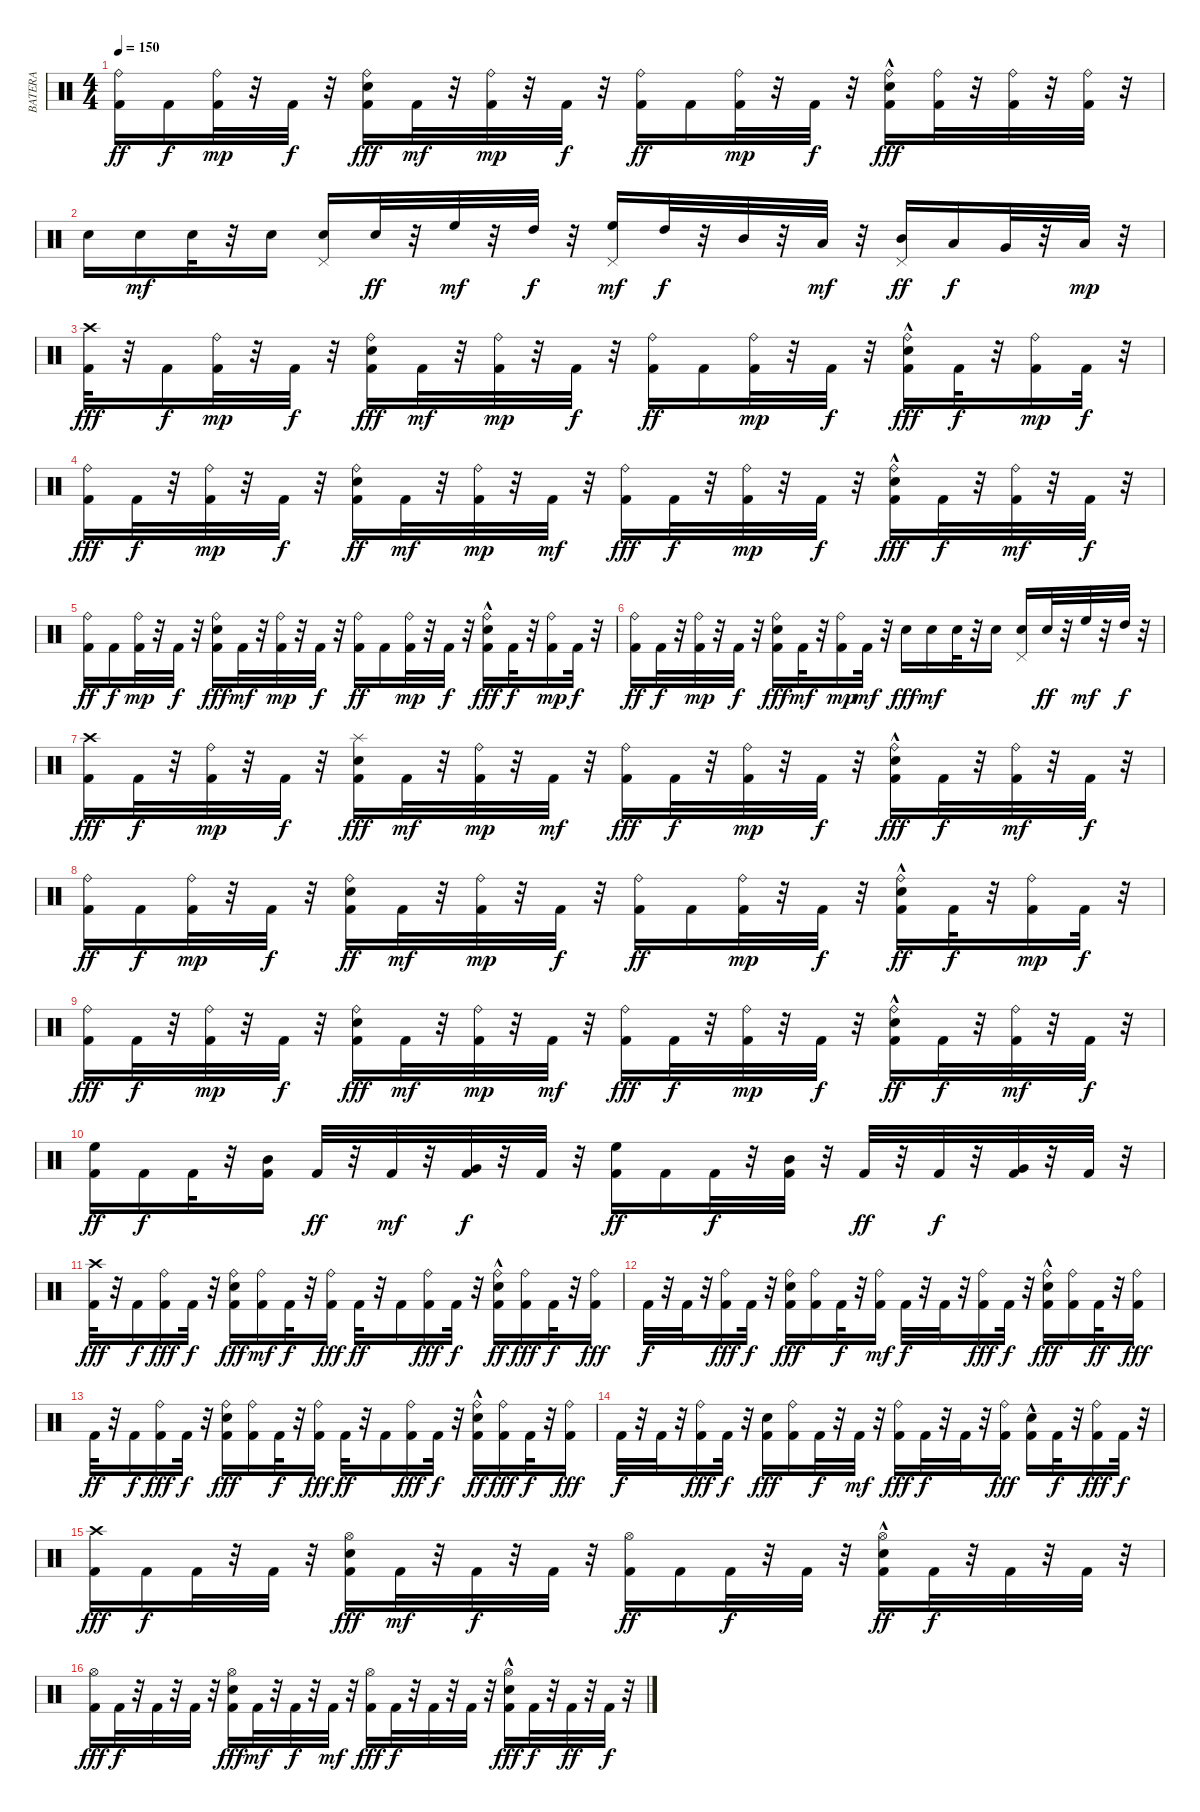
\track ("BATERA" "BATERA") {instrument percussion}
\staff {score}
\articulation defaults
\ts (4 4)
\tempo 150
\clef neutral
\ks c
("Ride (bell)" "Kick (hit) 2").16{dy ff} "Kick (hit) 2".16{dy f} ("Ride (bell)" "Kick (hit) 2").32{dy mp} r.32 "Kick (hit) 2".32{dy f} r.32 ("Kick (hit) 2" "Electric Snare (hit)" "Ride (bell)").16{dy fff} "Kick (hit) 2".32{dy mf} r.32 ("Kick (hit) 2" "Ride (bell)").32{dy mp} r.32 "Kick (hit) 2".32{dy f} r.32 ("Ride (bell)" "Kick (hit) 2").16{dy ff} "Kick (hit) 2".16 ("Ride (bell)" "Kick (hit) 2").32{dy mp} r.32 "Kick (hit) 2".32{dy f} r.32 ("Electric Snare (hit)"{hac} "Kick (hit) 2" "Ride (bell)").16{dy fff} ("Kick (hit) 2" "Ride (bell)").32 r.32 ("Ride (bell)" "Kick (hit) 2").32 r.32 ("Ride (bell)" "Kick (hit) 2").32 r.32 |
"Electric Snare (hit)".16 "Electric Snare (hit)".16{dy mf} "Electric Snare (hit)".32 r.32 "Electric Snare (hit)".16 ("Electric Snare (hit)" "Pedal Hi-Hat (hit)").16 "Electric Snare (hit)".32{dy ff} r.32 "High Floor Tom (hit)".32{dy mf} r.32 "High Tom (hit)".32{dy f} r.32 ("High Floor Tom (hit)" "Pedal Hi-Hat (hit)").16{dy mf} "High Tom (hit)".32{dy f} r.32 "Mid Tom (hit)".32 r.32 "Low Tom (hit)".32{dy mf} r.32 ("Pedal Hi-Hat (hit)" "Mid Tom (hit)").16{dy ff} "Low Tom (hit)".16{dy f} "Very Low Tom (hit)".32 r.32 "Low Floor Tom (hit)".32{dy mp} r.32 |
("Kick (hit) 2" "Crash high (hit)").32{dy fff} r.32 "Kick (hit) 2".16{dy f} ("Ride (bell)" "Kick (hit) 2").32{dy mp} r.32 "Kick (hit) 2".32{dy f} r.32 ("Electric Snare (hit)" "Kick (hit) 2" "Ride (bell)").16{dy fff} "Kick (hit) 2".32{dy mf} r.32 ("Kick (hit) 2" "Ride (bell)").32{dy mp} r.32 "Kick (hit) 2".32{dy f} r.32 ("Kick (hit) 2" "Ride (bell)").16{dy ff} "Kick (hit) 2".16 ("Ride (bell)" "Kick (hit) 2").32{dy mp} r.32 "Kick (hit) 2".32{dy f} r.32 ("Kick (hit) 2" "Ride (bell)" "Electric Snare (hit)"{hac}).16{dy fff} "Kick (hit) 2".32{dy f} r.32 ("Ride (bell)" "Kick (hit) 2").16{dy mp} "Kick (hit) 2".32{dy f} r.32 |
("Ride (bell)" "Kick (hit) 2").16{dy fff} "Kick (hit) 2".32{dy f} r.32 ("Ride (bell)" "Kick (hit) 2").32{dy mp} r.32 "Kick (hit) 2".32{dy f} r.32 ("Kick (hit) 2" "Electric Snare (hit)" "Ride (bell)").16{dy ff} "Kick (hit) 2".32{dy mf} r.32 ("Ride (bell)" "Kick (hit) 2").32{dy mp} r.32 "Kick (hit) 2".32{dy mf} r.32 ("Kick (hit) 2" "Ride (bell)").16{dy fff} "Kick (hit) 2".32{dy f} r.32 ("Ride (bell)" "Kick (hit) 2").32{dy mp} r.32 "Kick (hit) 2".32{dy f} r.32 ("Ride (bell)" "Electric Snare (hit)"{hac} "Kick (hit) 2").16{dy fff} "Kick (hit) 2".32{dy f} r.32 ("Kick (hit) 2" "Ride (bell)").32{dy mf} r.32 "Kick (hit) 2".32{dy f} r.32 |
("Kick (hit) 2" "Ride (bell)").16{dy ff} "Kick (hit) 2".16{dy f} ("Ride (bell)" "Kick (hit) 2").32{dy mp} r.32 "Kick (hit) 2".32{dy f} r.32 ("Electric Snare (hit)" "Kick (hit) 2" "Ride (bell)").16{dy fff} "Kick (hit) 2".32{dy mf} r.32 ("Ride (bell)" "Kick (hit) 2").32{dy mp} r.32 "Kick (hit) 2".32{dy f} r.32 ("Ride (bell)" "Kick (hit) 2").16{dy ff} "Kick (hit) 2".16 ("Kick (hit) 2" "Ride (bell)").32{dy mp} r.32 "Kick (hit) 2".32{dy f} r.32 ("Kick (hit) 2" "Ride (bell)" "Electric Snare (hit)"{hac}).16{dy fff} "Kick (hit) 2".32{dy f} r.32 ("Ride (bell)" "Kick (hit) 2").16{dy mp} "Kick (hit) 2".32{dy f} r.32 |
("Ride (bell)" "Kick (hit) 2").16{dy ff} "Kick (hit) 2".32{dy f} r.32 ("Ride (bell)" "Kick (hit) 2").32{dy mp} r.32 "Kick (hit) 2".32{dy f} r.32 ("Ride (bell)" "Electric Snare (hit)" "Kick (hit) 2").16{dy fff} "Kick (hit) 2".32{dy mf} r.32 ("Ride (bell)" "Kick (hit) 2").16{dy mp} "Kick (hit) 2".32{dy mf} r.32 "Electric Snare (hit)".16{dy fff} "Electric Snare (hit)".16{dy mf} "Electric Snare (hit)".32 r.32 "Electric Snare (hit)".16 ("Electric Snare (hit)" "Pedal Hi-Hat (hit)").16 "Electric Snare (hit)".32{dy ff} r.32 "High Floor Tom (hit)".32{dy mf} r.32 "High Tom (hit)".32{dy f} r.32 |
("Crash high (hit)" "Kick (hit) 2").16{dy fff} "Kick (hit) 2".32{dy f} r.32 ("Kick (hit) 2" "Ride (bell)").32{dy mp} r.32 "Kick (hit) 2".32{dy f} r.32 ("Kick (hit) 2" "Splash (hit)" "Electric Snare (hit)").16{dy fff} "Kick (hit) 2".32{dy mf} r.32 ("Kick (hit) 2" "Ride (bell)").32{dy mp} r.32 "Kick (hit) 2".32{dy mf} r.32 ("Kick (hit) 2" "Ride (bell)").16{dy fff} "Kick (hit) 2".32{dy f} r.32 ("Ride (bell)" "Kick (hit) 2").32{dy mp} r.32 "Kick (hit) 2".32{dy f} r.32 ("Ride (bell)" "Kick (hit) 2" "Electric Snare (hit)"{hac}).16{dy fff} "Kick (hit) 2".32{dy f} r.32 ("Kick (hit) 2" "Ride (bell)").32{dy mf} r.32 "Kick (hit) 2".32{dy f} r.32 |
("Ride (bell)" "Kick (hit) 2").16{dy ff} "Kick (hit) 2".16{dy f} ("Kick (hit) 2" "Ride (bell)").32{dy mp} r.32 "Kick (hit) 2".32{dy f} r.32 ("Ride (bell)" "Electric Snare (hit)" "Kick (hit) 2").16{dy ff} "Kick (hit) 2".32{dy mf} r.32 ("Kick (hit) 2" "Ride (bell)").32{dy mp} r.32 "Kick (hit) 2".32{dy f} r.32 ("Kick (hit) 2" "Ride (bell)").16{dy ff} "Kick (hit) 2".16 ("Ride (bell)" "Kick (hit) 2").32{dy mp} r.32 "Kick (hit) 2".32{dy f} r.32 ("Ride (bell)" "Electric Snare (hit)"{hac} "Kick (hit) 2").16{dy ff} "Kick (hit) 2".32{dy f} r.32 ("Ride (bell)" "Kick (hit) 2").16{dy mp} "Kick (hit) 2".32{dy f} r.32 |
("Ride (bell)" "Kick (hit) 2").16{dy fff} "Kick (hit) 2".32{dy f} r.32 ("Ride (bell)" "Kick (hit) 2").32{dy mp} r.32 "Kick (hit) 2".32{dy f} r.32 ("Ride (bell)" "Kick (hit) 2" "Electric Snare (hit)").16{dy fff} "Kick (hit) 2".32{dy mf} r.32 ("Kick (hit) 2" "Ride (bell)").32{dy mp} r.32 "Kick (hit) 2".32{dy mf} r.32 ("Ride (bell)" "Kick (hit) 2").16{dy fff} "Kick (hit) 2".32{dy f} r.32 ("Ride (bell)" "Kick (hit) 2").32{dy mp} r.32 "Kick (hit) 2".32{dy f} r.32 ("Electric Snare (hit)"{hac} "Ride (bell)" "Kick (hit) 2").16{dy ff} "Kick (hit) 2".32{dy f} r.32 ("Kick (hit) 2" "Ride (bell)").32{dy mf} r.32 "Kick (hit) 2".32{dy f} r.32 |
("Kick (hit) 2" "High Floor Tom (hit)").16{dy ff} "Kick (hit) 2".16{dy f} "Kick (hit) 2".32 r.32 ("Mid Tom (hit)" "Kick (hit) 2").16 "Kick (hit) 2".32{dy ff} r.32 "Kick (hit) 2".32{dy mf} r.32 ("Very Low Tom (hit)" "Kick (hit) 2").32{dy f} r.32 "Kick (hit) 2".32 r.32 ("Kick (hit) 2" "High Floor Tom (hit)").16{dy ff} "Kick (hit) 2".16 "Kick (hit) 2".32{dy f} r.32 ("Kick (hit) 2" "Mid Tom (hit)").32 r.32 "Kick (hit) 2".32{dy ff} r.32 "Kick (hit) 2".32{dy f} r.32 ("Very Low Tom (hit)" "Kick (hit) 2").32 r.32 "Kick (hit) 2".32 r.32 |
("Kick (hit) 2" "Crash high (hit)").32{dy fff} r.32 "Kick (hit) 2".16{dy f} ("Kick (hit) 2" "Ride (bell)").16{dy fff} "Kick (hit) 2".32{dy f} r.32 ("Ride (bell)" "Kick (hit) 2" "Electric Snare (hit)").16{dy fff} ("Ride (bell)" "Kick (hit) 2").16{dy mf} "Kick (hit) 2".32{dy f} r.32 ("Ride (bell)" "Kick (hit) 2").16{dy fff} "Kick (hit) 2".32{dy ff} r.32 "Kick (hit) 2".16 ("Ride (bell)" "Kick (hit) 2").16{dy fff} "Kick (hit) 2".32{dy f} r.32 ("Ride (bell)" "Electric Snare (hit)"{hac} "Kick (hit) 2").16{dy ff} ("Ride (bell)" "Kick (hit) 2").16{dy fff} "Kick (hit) 2".32{dy f} r.32 ("Ride (bell)" "Kick (hit) 2").16{dy fff} |
"Kick (hit) 2".32{dy f} r.32 "Kick (hit) 2".32 r.32 ("Kick (hit) 2" "Ride (bell)").16{dy fff} "Kick (hit) 2".32{dy f} r.32 ("Electric Snare (hit)" "Ride (bell)" "Kick (hit) 2").16{dy fff} ("Kick (hit) 2" "Ride (bell)").16 "Kick (hit) 2".32{dy f} r.32 ("Ride (bell)" "Kick (hit) 2").16{dy mf} "Kick (hit) 2".32{dy f} r.32 "Kick (hit) 2".32 r.32 ("Kick (hit) 2" "Ride (bell)").16{dy fff} "Kick (hit) 2".32{dy f} r.32 ("Electric Snare (hit)"{hac} "Ride (bell)" "Kick (hit) 2").16{dy fff} ("Kick (hit) 2" "Ride (bell)").16 "Kick (hit) 2".32{dy ff} r.32 ("Ride (bell)" "Kick (hit) 2").16{dy fff} |
"Kick (hit) 2".32{dy ff} r.32 "Kick (hit) 2".16{dy f} ("Kick (hit) 2" "Ride (bell)").16{dy fff} "Kick (hit) 2".32{dy f} r.32 ("Kick (hit) 2" "Ride (bell)" "Electric Snare (hit)").16{dy fff} ("Kick (hit) 2" "Ride (bell)").16 "Kick (hit) 2".32{dy f} r.32 ("Kick (hit) 2" "Ride (bell)").16{dy fff} "Kick (hit) 2".32{dy ff} r.32 "Kick (hit) 2".16 ("Kick (hit) 2" "Ride (bell)").16{dy fff} "Kick (hit) 2".32{dy f} r.32 ("Ride (bell)" "Electric Snare (hit)"{hac} "Kick (hit) 2").16{dy ff} ("Ride (bell)" "Kick (hit) 2").16{dy fff} "Kick (hit) 2".32{dy f} r.32 ("Ride (bell)" "Kick (hit) 2").16{dy fff} |
"Kick (hit) 2".32{dy f} r.32 "Kick (hit) 2".32 r.32 ("Kick (hit) 2" "Ride (bell)").16{dy fff} "Kick (hit) 2".32{dy f} r.32 ("Kick (hit) 2" "Electric Snare (hit)").16{dy fff} ("Kick (hit) 2" "Ride (bell)").16 "Kick (hit) 2".32{dy f} r.32 "Kick (hit) 2".32{dy mf} r.32 ("Ride (bell)" "Kick (hit) 2").16{dy fff} "Kick (hit) 2".32{dy f} r.32 "Kick (hit) 2".32 r.32 ("Kick (hit) 2" "Ride (bell)").16{dy fff} ("Electric Snare (hit)"{hac} "Kick (hit) 2").16 "Kick (hit) 2".32{dy f} r.32 ("Kick (hit) 2" "Ride (bell)").16{dy fff} "Kick (hit) 2".32{dy f} r.32 |
("Kick (hit) 2" "Crash high (hit)").16{dy fff} "Kick (hit) 2".16{dy f} "Kick (hit) 2".32 r.32 "Kick (hit) 2".32 r.32 ("Hi-Hat (open)" "Kick (hit) 2" "Electric Snare (hit)").16{dy fff} "Kick (hit) 2".32{dy mf} r.32 "Kick (hit) 2".32{dy f} r.32 "Kick (hit) 2".32 r.32 ("Hi-Hat (open)" "Kick (hit) 2").16{dy ff} "Kick (hit) 2".16 "Kick (hit) 2".32{dy f} r.32 "Kick (hit) 2".32 r.32 ("Hi-Hat (open)" "Electric Snare (hit)"{hac} "Kick (hit) 2").16{dy ff} "Kick (hit) 2".32{dy f} r.32 "Kick (hit) 2".32 r.32 "Kick (hit) 2".32 r.32 |
("Kick (hit) 2" "Hi-Hat (open)").16{dy fff} "Kick (hit) 2".32{dy f} r.32 "Kick (hit) 2".32 r.32 "Kick (hit) 2".32 r.32 ("Hi-Hat (open)" "Electric Snare (hit)" "Kick (hit) 2").16{dy fff} "Kick (hit) 2".32{dy mf} r.32 "Kick (hit) 2".32{dy f} r.32 "Kick (hit) 2".32{dy mf} r.32 ("Kick (hit) 2" "Hi-Hat (open)").16{dy fff} "Kick (hit) 2".32{dy f} r.32 "Kick (hit) 2".32 r.32 "Kick (hit) 2".32 r.32 ("Electric Snare (hit)"{hac} "Kick (hit) 2" "Hi-Hat (open)").16{dy fff} "Kick (hit) 2".32{dy f} r.32 "Kick (hit) 2".32{dy ff} r.32 "Kick (hit) 2".32{dy f} r.32
